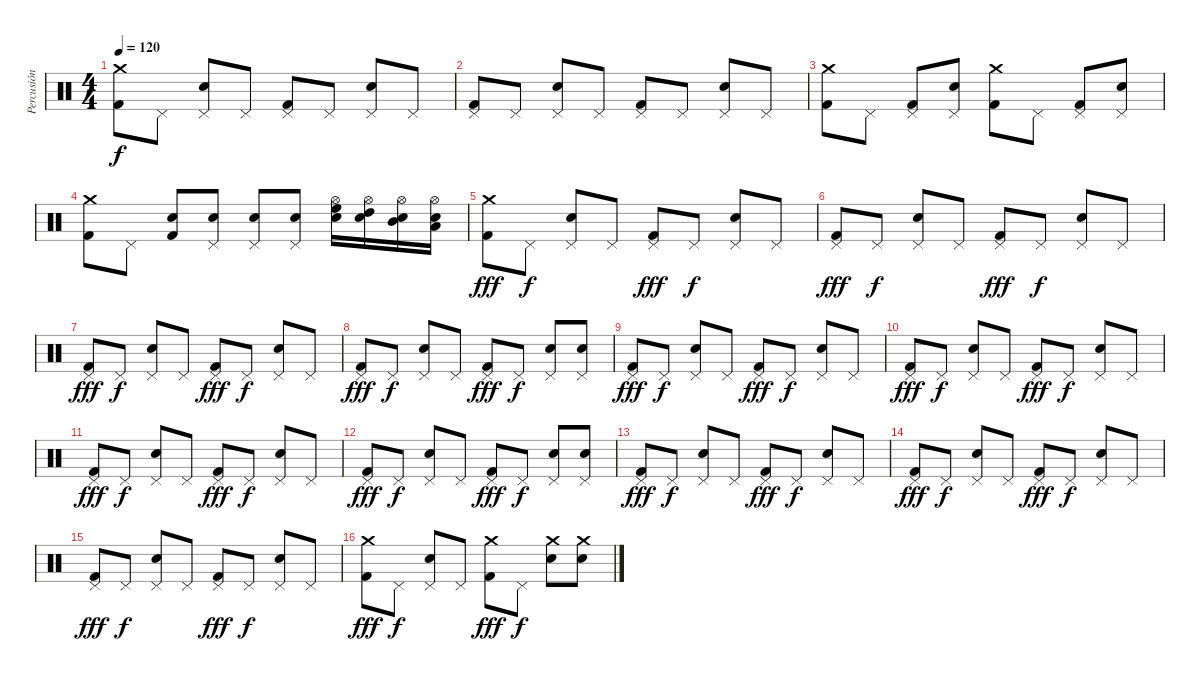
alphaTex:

\track ("Percusión" "Percusión") {instrument percussion}
\staff {score}
\articulation defaults
\ts (4 4)
\tempo 120
\clef neutral
\ks c
("Crash medium (hit)" "Kick (hit) 2").8{dy f} "Pedal Hi-Hat (hit)".8 ("Pedal Hi-Hat (hit)" "Electric Snare (hit)").8 "Pedal Hi-Hat (hit)".8 ("Pedal Hi-Hat (hit)" "Kick (hit) 2").8 "Pedal Hi-Hat (hit)".8 ("Pedal Hi-Hat (hit)" "Electric Snare (hit)").8 "Pedal Hi-Hat (hit)".8 |
("Pedal Hi-Hat (hit)" "Kick (hit) 2").8 "Pedal Hi-Hat (hit)".8 ("Pedal Hi-Hat (hit)" "Electric Snare (hit)").8 "Pedal Hi-Hat (hit)".8 ("Pedal Hi-Hat (hit)" "Kick (hit) 2").8 "Pedal Hi-Hat (hit)".8 ("Pedal Hi-Hat (hit)" "Electric Snare (hit)").8 "Pedal Hi-Hat (hit)".8 |
("Crash medium (hit)" "Kick (hit) 2").8 "Pedal Hi-Hat (hit)".8 ("Pedal Hi-Hat (hit)" "Kick (hit) 2").8 ("Pedal Hi-Hat (hit)" "Electric Snare (hit)").8 ("Crash medium (hit)" "Kick (hit) 2").8 "Pedal Hi-Hat (hit)".8 ("Pedal Hi-Hat (hit)" "Kick (hit) 2").8 ("Pedal Hi-Hat (hit)" "Electric Snare (hit)").8 |
("Crash medium (hit)" "Kick (hit) 2").8 "Pedal Hi-Hat (hit)".8 ("Electric Snare (hit)" "Kick (hit) 2").8 ("Pedal Hi-Hat (hit)" "Electric Snare (hit)").8 ("Pedal Hi-Hat (hit)" "Electric Snare (hit)").8 ("Pedal Hi-Hat (hit)" "Electric Snare (hit)").8 ("Hi-Hat (open)" "High Floor Tom (hit)" "Electric Snare (hit)").16 ("Hi-Hat (open)" "High Tom (hit)" "Electric Snare (hit)").16 ("Hi-Hat (open)" "Mid Tom (hit)" "Electric Snare (hit)").16 ("Hi-Hat (open)" "Low Tom (hit)" "Electric Snare (hit)").16 |
("Crash medium (hit)" "Kick (hit) 2").8{dy fff} "Pedal Hi-Hat (hit)".8{dy f} ("Pedal Hi-Hat (hit)" "Electric Snare (hit)").8 "Pedal Hi-Hat (hit)".8 ("Pedal Hi-Hat (hit)" "Kick (hit) 2").8{dy fff} "Pedal Hi-Hat (hit)".8{dy f} ("Pedal Hi-Hat (hit)" "Electric Snare (hit)").8 "Pedal Hi-Hat (hit)".8 |
("Pedal Hi-Hat (hit)" "Kick (hit) 2").8{dy fff} "Pedal Hi-Hat (hit)".8{dy f} ("Pedal Hi-Hat (hit)" "Electric Snare (hit)").8 "Pedal Hi-Hat (hit)".8 ("Pedal Hi-Hat (hit)" "Kick (hit) 2").8{dy fff} "Pedal Hi-Hat (hit)".8{dy f} ("Pedal Hi-Hat (hit)" "Electric Snare (hit)").8 "Pedal Hi-Hat (hit)".8 |
("Pedal Hi-Hat (hit)" "Kick (hit) 2").8{dy fff} "Pedal Hi-Hat (hit)".8{dy f} ("Pedal Hi-Hat (hit)" "Electric Snare (hit)").8 "Pedal Hi-Hat (hit)".8 ("Pedal Hi-Hat (hit)" "Kick (hit) 2").8{dy fff} "Pedal Hi-Hat (hit)".8{dy f} ("Pedal Hi-Hat (hit)" "Electric Snare (hit)").8 "Pedal Hi-Hat (hit)".8 |
("Pedal Hi-Hat (hit)" "Kick (hit) 2").8{dy fff} "Pedal Hi-Hat (hit)".8{dy f} ("Pedal Hi-Hat (hit)" "Electric Snare (hit)").8 "Pedal Hi-Hat (hit)".8 ("Pedal Hi-Hat (hit)" "Kick (hit) 2").8{dy fff} "Pedal Hi-Hat (hit)".8{dy f} ("Pedal Hi-Hat (hit)" "Electric Snare (hit)").8 ("Pedal Hi-Hat (hit)" "Electric Snare (hit)").8 |
("Pedal Hi-Hat (hit)" "Kick (hit) 2").8{dy fff} "Pedal Hi-Hat (hit)".8{dy f} ("Pedal Hi-Hat (hit)" "Electric Snare (hit)").8 "Pedal Hi-Hat (hit)".8 ("Pedal Hi-Hat (hit)" "Kick (hit) 2").8{dy fff} "Pedal Hi-Hat (hit)".8{dy f} ("Pedal Hi-Hat (hit)" "Electric Snare (hit)").8 "Pedal Hi-Hat (hit)".8 |
("Pedal Hi-Hat (hit)" "Kick (hit) 2").8{dy fff} "Pedal Hi-Hat (hit)".8{dy f} ("Pedal Hi-Hat (hit)" "Electric Snare (hit)").8 "Pedal Hi-Hat (hit)".8 ("Pedal Hi-Hat (hit)" "Kick (hit) 2").8{dy fff} "Pedal Hi-Hat (hit)".8{dy f} ("Pedal Hi-Hat (hit)" "Electric Snare (hit)").8 "Pedal Hi-Hat (hit)".8 |
("Pedal Hi-Hat (hit)" "Kick (hit) 2").8{dy fff} "Pedal Hi-Hat (hit)".8{dy f} ("Pedal Hi-Hat (hit)" "Electric Snare (hit)").8 "Pedal Hi-Hat (hit)".8 ("Pedal Hi-Hat (hit)" "Kick (hit) 2").8{dy fff} "Pedal Hi-Hat (hit)".8{dy f} ("Pedal Hi-Hat (hit)" "Electric Snare (hit)").8 "Pedal Hi-Hat (hit)".8 |
("Pedal Hi-Hat (hit)" "Kick (hit) 2").8{dy fff} "Pedal Hi-Hat (hit)".8{dy f} ("Pedal Hi-Hat (hit)" "Electric Snare (hit)").8 "Pedal Hi-Hat (hit)".8 ("Pedal Hi-Hat (hit)" "Kick (hit) 2").8{dy fff} "Pedal Hi-Hat (hit)".8{dy f} ("Pedal Hi-Hat (hit)" "Electric Snare (hit)").8 ("Pedal Hi-Hat (hit)" "Electric Snare (hit)").8 |
("Pedal Hi-Hat (hit)" "Kick (hit) 2").8{dy fff} "Pedal Hi-Hat (hit)".8{dy f} ("Pedal Hi-Hat (hit)" "Electric Snare (hit)").8 "Pedal Hi-Hat (hit)".8 ("Pedal Hi-Hat (hit)" "Kick (hit) 2").8{dy fff} "Pedal Hi-Hat (hit)".8{dy f} ("Pedal Hi-Hat (hit)" "Electric Snare (hit)").8 "Pedal Hi-Hat (hit)".8 |
("Pedal Hi-Hat (hit)" "Kick (hit) 2").8{dy fff} "Pedal Hi-Hat (hit)".8{dy f} ("Pedal Hi-Hat (hit)" "Electric Snare (hit)").8 "Pedal Hi-Hat (hit)".8 ("Pedal Hi-Hat (hit)" "Kick (hit) 2").8{dy fff} "Pedal Hi-Hat (hit)".8{dy f} ("Pedal Hi-Hat (hit)" "Electric Snare (hit)").8 "Pedal Hi-Hat (hit)".8 |
("Pedal Hi-Hat (hit)" "Kick (hit) 2").8{dy fff} "Pedal Hi-Hat (hit)".8{dy f} ("Pedal Hi-Hat (hit)" "Electric Snare (hit)").8 "Pedal Hi-Hat (hit)".8 ("Pedal Hi-Hat (hit)" "Kick (hit) 2").8{dy fff} "Pedal Hi-Hat (hit)".8{dy f} ("Pedal Hi-Hat (hit)" "Electric Snare (hit)").8 "Pedal Hi-Hat (hit)".8 |
("Crash medium (hit)" "Kick (hit) 2").8{dy fff} "Pedal Hi-Hat (hit)".8{dy f} ("Pedal Hi-Hat (hit)" "Electric Snare (hit)").8 "Pedal Hi-Hat (hit)".8 ("Crash medium (hit)" "Kick (hit) 2").8{dy fff} "Pedal Hi-Hat (hit)".8{dy f} ("Crash medium (hit)" "Electric Snare (hit)").8 ("Crash medium (hit)" "Electric Snare (hit)").8
